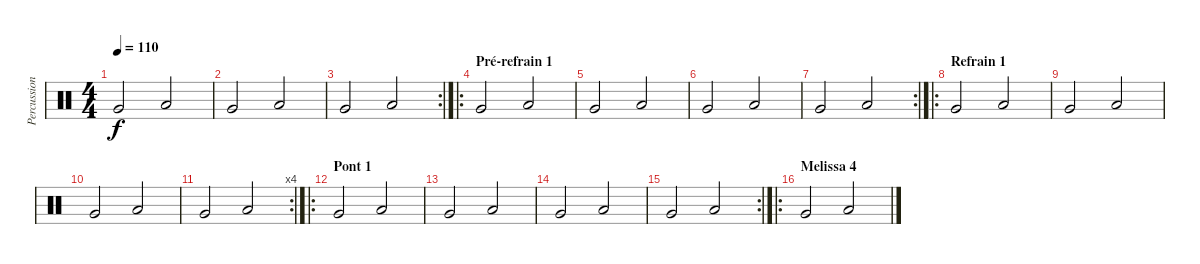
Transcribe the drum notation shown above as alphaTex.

\track ("Percussions" "Percussion") {instrument percussion}
\staff {score}
\articulation defaults
\ts (4 4)
\tempo 110
\clef neutral
\ks c "Very Low Tom (hit)".2{dy f} "Low Floor Tom (hit)".2
|
"Very Low Tom (hit)".2 "Low Floor Tom (hit)".2 |
\rc 2 "Very Low Tom (hit)".2 "Low Floor Tom (hit)".2
|
\ro
\section ("" "Pré-refrain 1")
"Very Low Tom (hit)".2 "Low Floor Tom (hit)".2 |
"Very Low Tom (hit)".2 "Low Floor Tom (hit)".2 |
"Very Low Tom (hit)".2 "Low Floor Tom (hit)".2 |
\rc 2 "Very Low Tom (hit)".2 "Low Floor Tom (hit)".2
|
\ro
\section ("" "Refrain 1")
"Very Low Tom (hit)".2 "Low Floor Tom (hit)".2 |
"Very Low Tom (hit)".2 "Low Floor Tom (hit)".2 |
"Very Low Tom (hit)".2 "Low Floor Tom (hit)".2 |
\rc 4 "Very Low Tom (hit)".2 "Low Floor Tom (hit)".2
|
\ro
\section ("" "Pont 1")
"Very Low Tom (hit)".2 "Low Floor Tom (hit)".2 |
"Very Low Tom (hit)".2 "Low Floor Tom (hit)".2 |
"Very Low Tom (hit)".2 "Low Floor Tom (hit)".2 |
\rc 2 "Very Low Tom (hit)".2 "Low Floor Tom (hit)".2
|
\ro
\section ("" "Melissa 4")
"Very Low Tom (hit)".2 "Low Floor Tom (hit)".2
